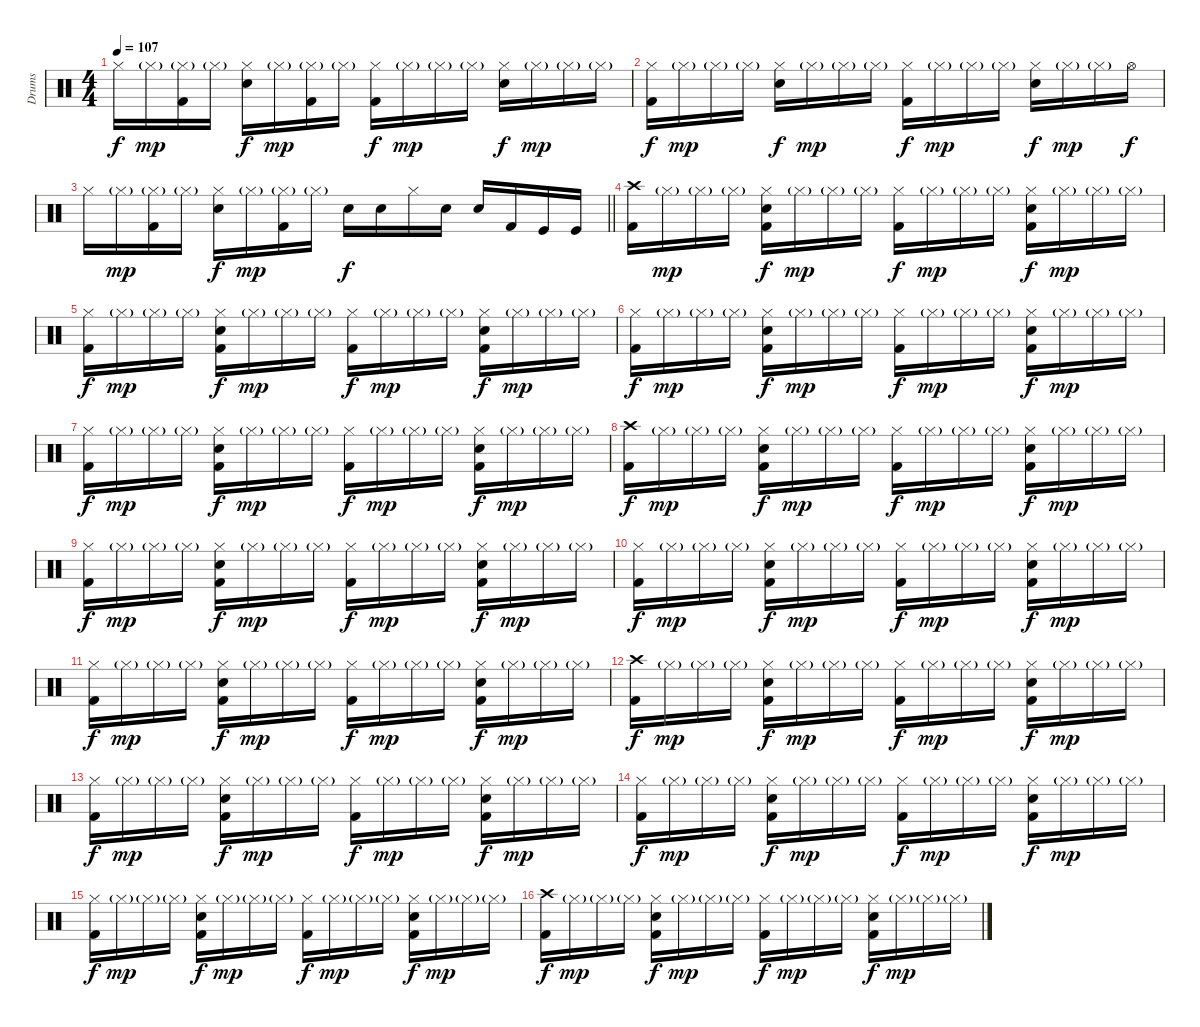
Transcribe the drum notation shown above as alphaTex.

\track ("Drums" "Drums") {instrument percussion}
\staff {score}
\articulation defaults
\ts (4 4)
\tempo 107
\clef neutral
\ks c "Hi-Hat (closed)".16{dy f} "Hi-Hat (closed)"{g}.16{dy mp}
("Hi-Hat (closed)"{g} "Kick (hit) 2").16 "Hi-Hat (closed)"{g}.16 ("Hi-Hat (closed)" "Snare (hit) 2").16{dy f} "Hi-Hat (closed)"{g}.16{dy mp} ("Hi-Hat (closed)"{g} "Kick (hit) 2").16 "Hi-Hat (closed)"{g}.16 ("Hi-Hat (closed)" "Kick (hit) 2").16{dy f} "Hi-Hat (closed)"{g}.16{dy mp} "Hi-Hat (closed)"{g}.16 "Hi-Hat (closed)"{g}.16 ("Hi-Hat (closed)" "Snare (hit) 2").16{dy f} "Hi-Hat (closed)"{g}.16{dy mp} "Hi-Hat (closed)"{g}.16 "Hi-Hat (closed)"{g}.16 |
("Hi-Hat (closed)" "Kick (hit) 2").16{dy f} "Hi-Hat (closed)"{g}.16{dy mp} "Hi-Hat (closed)"{g}.16 "Hi-Hat (closed)"{g}.16 ("Hi-Hat (closed)" "Snare (hit) 2").16{dy f} "Hi-Hat (closed)"{g}.16{dy mp} "Hi-Hat (closed)"{g}.16 "Hi-Hat (closed)"{g}.16 ("Hi-Hat (closed)" "Kick (hit) 2").16{dy f} "Hi-Hat (closed)"{g}.16{dy mp} "Hi-Hat (closed)"{g}.16 "Hi-Hat (closed)"{g}.16 ("Hi-Hat (closed)" "Snare (hit) 2").16{dy f} "Hi-Hat (closed)"{g}.16{dy mp} "Hi-Hat (closed)"{g}.16 "Hi-Hat (open)".16{dy f} |
\barLineRight lightlight "Hi-Hat (closed)".16 "Hi-Hat (closed)"{g}.16{dy mp}
("Hi-Hat (closed)"{g} "Kick (hit) 2").16 "Hi-Hat (closed)"{g}.16 ("Hi-Hat (closed)" "Snare (hit) 2").16{dy f} "Hi-Hat (closed)"{g}.16{dy mp} ("Hi-Hat (closed)"{g} "Kick (hit) 2").16 "Hi-Hat (closed)"{g}.16 "Snare (hit) 2".16{dy f} "Snare (hit) 2".16 "Hi-Hat (closed)".16 "Snare (hit) 2".16 "Snare (hit) 2".16 "Kick (hit) 2".16 "Kick (hit)".16 "Kick (hit)".16 |
("Crash high (hit)" "Kick (hit) 2").16 "Hi-Hat (closed)"{g}.16{dy mp} "Hi-Hat (closed)"{g}.16 "Hi-Hat (closed)"{g}.16 ("Hi-Hat (closed)" "Snare (hit) 2" "Kick (hit) 2").16{dy f} "Hi-Hat (closed)"{g}.16{dy mp} "Hi-Hat (closed)"{g}.16 "Hi-Hat (closed)"{g}.16 ("Hi-Hat (closed)" "Kick (hit) 2").16{dy f} "Hi-Hat (closed)"{g}.16{dy mp} "Hi-Hat (closed)"{g}.16 "Hi-Hat (closed)"{g}.16 ("Hi-Hat (closed)" "Snare (hit) 2" "Kick (hit) 2").16{dy f} "Hi-Hat (closed)"{g}.16{dy mp} "Hi-Hat (closed)"{g}.16 "Hi-Hat (closed)"{g}.16 |
("Hi-Hat (closed)" "Kick (hit) 2").16{dy f} "Hi-Hat (closed)"{g}.16{dy mp} "Hi-Hat (closed)"{g}.16 "Hi-Hat (closed)"{g}.16 ("Hi-Hat (closed)" "Snare (hit) 2" "Kick (hit) 2").16{dy f} "Hi-Hat (closed)"{g}.16{dy mp} "Hi-Hat (closed)"{g}.16 "Hi-Hat (closed)"{g}.16 ("Hi-Hat (closed)" "Kick (hit) 2").16{dy f} "Hi-Hat (closed)"{g}.16{dy mp} "Hi-Hat (closed)"{g}.16 "Hi-Hat (closed)"{g}.16 ("Hi-Hat (closed)" "Snare (hit) 2" "Kick (hit) 2").16{dy f} "Hi-Hat (closed)"{g}.16{dy mp} "Hi-Hat (closed)"{g}.16 "Hi-Hat (closed)"{g}.16 |
("Hi-Hat (closed)" "Kick (hit) 2").16{dy f} "Hi-Hat (closed)"{g}.16{dy mp} "Hi-Hat (closed)"{g}.16 "Hi-Hat (closed)"{g}.16 ("Hi-Hat (closed)" "Snare (hit) 2" "Kick (hit) 2").16{dy f} "Hi-Hat (closed)"{g}.16{dy mp} "Hi-Hat (closed)"{g}.16 "Hi-Hat (closed)"{g}.16 ("Hi-Hat (closed)" "Kick (hit) 2").16{dy f} "Hi-Hat (closed)"{g}.16{dy mp} "Hi-Hat (closed)"{g}.16 "Hi-Hat (closed)"{g}.16 ("Hi-Hat (closed)" "Snare (hit) 2" "Kick (hit) 2").16{dy f} "Hi-Hat (closed)"{g}.16{dy mp} "Hi-Hat (closed)"{g}.16 "Hi-Hat (closed)"{g}.16 |
("Hi-Hat (closed)" "Kick (hit) 2").16{dy f} "Hi-Hat (closed)"{g}.16{dy mp} "Hi-Hat (closed)"{g}.16 "Hi-Hat (closed)"{g}.16 ("Hi-Hat (closed)" "Snare (hit) 2" "Kick (hit) 2").16{dy f} "Hi-Hat (closed)"{g}.16{dy mp} "Hi-Hat (closed)"{g}.16 "Hi-Hat (closed)"{g}.16 ("Hi-Hat (closed)" "Kick (hit) 2").16{dy f} "Hi-Hat (closed)"{g}.16{dy mp} "Hi-Hat (closed)"{g}.16 "Hi-Hat (closed)"{g}.16 ("Hi-Hat (closed)" "Snare (hit) 2" "Kick (hit) 2").16{dy f} "Hi-Hat (closed)"{g}.16{dy mp} "Hi-Hat (closed)"{g}.16 "Hi-Hat (closed)"{g}.16 |
("Crash high (hit)" "Kick (hit) 2").16{dy f} "Hi-Hat (closed)"{g}.16{dy mp} "Hi-Hat (closed)"{g}.16 "Hi-Hat (closed)"{g}.16 ("Hi-Hat (closed)" "Snare (hit) 2" "Kick (hit) 2").16{dy f} "Hi-Hat (closed)"{g}.16{dy mp} "Hi-Hat (closed)"{g}.16 "Hi-Hat (closed)"{g}.16 ("Hi-Hat (closed)" "Kick (hit) 2").16{dy f} "Hi-Hat (closed)"{g}.16{dy mp} "Hi-Hat (closed)"{g}.16 "Hi-Hat (closed)"{g}.16 ("Hi-Hat (closed)" "Snare (hit) 2" "Kick (hit) 2").16{dy f} "Hi-Hat (closed)"{g}.16{dy mp} "Hi-Hat (closed)"{g}.16 "Hi-Hat (closed)"{g}.16 |
("Hi-Hat (closed)" "Kick (hit) 2").16{dy f} "Hi-Hat (closed)"{g}.16{dy mp} "Hi-Hat (closed)"{g}.16 "Hi-Hat (closed)"{g}.16 ("Hi-Hat (closed)" "Snare (hit) 2" "Kick (hit) 2").16{dy f} "Hi-Hat (closed)"{g}.16{dy mp} "Hi-Hat (closed)"{g}.16 "Hi-Hat (closed)"{g}.16 ("Hi-Hat (closed)" "Kick (hit) 2").16{dy f} "Hi-Hat (closed)"{g}.16{dy mp} "Hi-Hat (closed)"{g}.16 "Hi-Hat (closed)"{g}.16 ("Hi-Hat (closed)" "Snare (hit) 2" "Kick (hit) 2").16{dy f} "Hi-Hat (closed)"{g}.16{dy mp} "Hi-Hat (closed)"{g}.16 "Hi-Hat (closed)"{g}.16 |
("Hi-Hat (closed)" "Kick (hit) 2").16{dy f} "Hi-Hat (closed)"{g}.16{dy mp} "Hi-Hat (closed)"{g}.16 "Hi-Hat (closed)"{g}.16 ("Hi-Hat (closed)" "Snare (hit) 2" "Kick (hit) 2").16{dy f} "Hi-Hat (closed)"{g}.16{dy mp} "Hi-Hat (closed)"{g}.16 "Hi-Hat (closed)"{g}.16 ("Hi-Hat (closed)" "Kick (hit) 2").16{dy f} "Hi-Hat (closed)"{g}.16{dy mp} "Hi-Hat (closed)"{g}.16 "Hi-Hat (closed)"{g}.16 ("Hi-Hat (closed)" "Snare (hit) 2" "Kick (hit) 2").16{dy f} "Hi-Hat (closed)"{g}.16{dy mp} "Hi-Hat (closed)"{g}.16 "Hi-Hat (closed)"{g}.16 |
("Hi-Hat (closed)" "Kick (hit) 2").16{dy f} "Hi-Hat (closed)"{g}.16{dy mp} "Hi-Hat (closed)"{g}.16 "Hi-Hat (closed)"{g}.16 ("Hi-Hat (closed)" "Snare (hit) 2" "Kick (hit) 2").16{dy f} "Hi-Hat (closed)"{g}.16{dy mp} "Hi-Hat (closed)"{g}.16 "Hi-Hat (closed)"{g}.16 ("Hi-Hat (closed)" "Kick (hit) 2").16{dy f} "Hi-Hat (closed)"{g}.16{dy mp} "Hi-Hat (closed)"{g}.16 "Hi-Hat (closed)"{g}.16 ("Hi-Hat (closed)" "Snare (hit) 2" "Kick (hit) 2").16{dy f} "Hi-Hat (closed)"{g}.16{dy mp} "Hi-Hat (closed)"{g}.16 "Hi-Hat (closed)"{g}.16 |
("Crash high (hit)" "Kick (hit) 2").16{dy f} "Hi-Hat (closed)"{g}.16{dy mp} "Hi-Hat (closed)"{g}.16 "Hi-Hat (closed)"{g}.16 ("Hi-Hat (closed)" "Snare (hit) 2" "Kick (hit) 2").16{dy f} "Hi-Hat (closed)"{g}.16{dy mp} "Hi-Hat (closed)"{g}.16 "Hi-Hat (closed)"{g}.16 ("Hi-Hat (closed)" "Kick (hit) 2").16{dy f} "Hi-Hat (closed)"{g}.16{dy mp} "Hi-Hat (closed)"{g}.16 "Hi-Hat (closed)"{g}.16 ("Hi-Hat (closed)" "Snare (hit) 2" "Kick (hit) 2").16{dy f} "Hi-Hat (closed)"{g}.16{dy mp} "Hi-Hat (closed)"{g}.16 "Hi-Hat (closed)"{g}.16 |
("Hi-Hat (closed)" "Kick (hit) 2").16{dy f} "Hi-Hat (closed)"{g}.16{dy mp} "Hi-Hat (closed)"{g}.16 "Hi-Hat (closed)"{g}.16 ("Hi-Hat (closed)" "Snare (hit) 2" "Kick (hit) 2").16{dy f} "Hi-Hat (closed)"{g}.16{dy mp} "Hi-Hat (closed)"{g}.16 "Hi-Hat (closed)"{g}.16 ("Hi-Hat (closed)" "Kick (hit) 2").16{dy f} "Hi-Hat (closed)"{g}.16{dy mp} "Hi-Hat (closed)"{g}.16 "Hi-Hat (closed)"{g}.16 ("Hi-Hat (closed)" "Snare (hit) 2" "Kick (hit) 2").16{dy f} "Hi-Hat (closed)"{g}.16{dy mp} "Hi-Hat (closed)"{g}.16 "Hi-Hat (closed)"{g}.16 |
("Hi-Hat (closed)" "Kick (hit) 2").16{dy f} "Hi-Hat (closed)"{g}.16{dy mp} "Hi-Hat (closed)"{g}.16 "Hi-Hat (closed)"{g}.16 ("Hi-Hat (closed)" "Snare (hit) 2" "Kick (hit) 2").16{dy f} "Hi-Hat (closed)"{g}.16{dy mp} "Hi-Hat (closed)"{g}.16 "Hi-Hat (closed)"{g}.16 ("Hi-Hat (closed)" "Kick (hit) 2").16{dy f} "Hi-Hat (closed)"{g}.16{dy mp} "Hi-Hat (closed)"{g}.16 "Hi-Hat (closed)"{g}.16 ("Hi-Hat (closed)" "Snare (hit) 2" "Kick (hit) 2").16{dy f} "Hi-Hat (closed)"{g}.16{dy mp} "Hi-Hat (closed)"{g}.16 "Hi-Hat (closed)"{g}.16 |
("Hi-Hat (closed)" "Kick (hit) 2").16{dy f} "Hi-Hat (closed)"{g}.16{dy mp} "Hi-Hat (closed)"{g}.16 "Hi-Hat (closed)"{g}.16 ("Hi-Hat (closed)" "Snare (hit) 2" "Kick (hit) 2").16{dy f} "Hi-Hat (closed)"{g}.16{dy mp} "Hi-Hat (closed)"{g}.16 "Hi-Hat (closed)"{g}.16 ("Hi-Hat (closed)" "Kick (hit) 2").16{dy f} "Hi-Hat (closed)"{g}.16{dy mp} "Hi-Hat (closed)"{g}.16 "Hi-Hat (closed)"{g}.16 ("Hi-Hat (closed)" "Snare (hit) 2" "Kick (hit) 2").16{dy f} "Hi-Hat (closed)"{g}.16{dy mp} "Hi-Hat (closed)"{g}.16 "Hi-Hat (closed)"{g}.16 |
("Crash high (hit)" "Kick (hit) 2").16{dy f} "Hi-Hat (closed)"{g}.16{dy mp} "Hi-Hat (closed)"{g}.16 "Hi-Hat (closed)"{g}.16 ("Hi-Hat (closed)" "Snare (hit) 2" "Kick (hit) 2").16{dy f} "Hi-Hat (closed)"{g}.16{dy mp} "Hi-Hat (closed)"{g}.16 "Hi-Hat (closed)"{g}.16 ("Hi-Hat (closed)" "Kick (hit) 2").16{dy f} "Hi-Hat (closed)"{g}.16{dy mp} "Hi-Hat (closed)"{g}.16 "Hi-Hat (closed)"{g}.16 ("Hi-Hat (closed)" "Snare (hit) 2" "Kick (hit) 2").16{dy f} "Hi-Hat (closed)"{g}.16{dy mp} "Hi-Hat (closed)"{g}.16 "Hi-Hat (closed)"{g}.16
